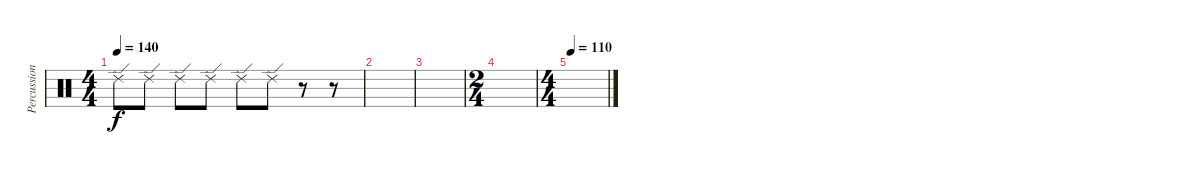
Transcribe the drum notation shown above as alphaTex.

\track ("Percussion" "Percussion") {instrument percussion}
\staff {score}
\articulation defaults
\ts (4 4)
\tempo 140
\clef neutral
\ks c "Ride (edge) 2".8{dy f} "Ride (edge) 2".8 "Ride (edge) 2".8 "Ride (edge) 2".8 "Ride (edge) 2".8 "Ride (edge) 2".8
r.8 r.8 |
|
|
\ts (2 4)
|
\ts (4 4)
\tempo 110
